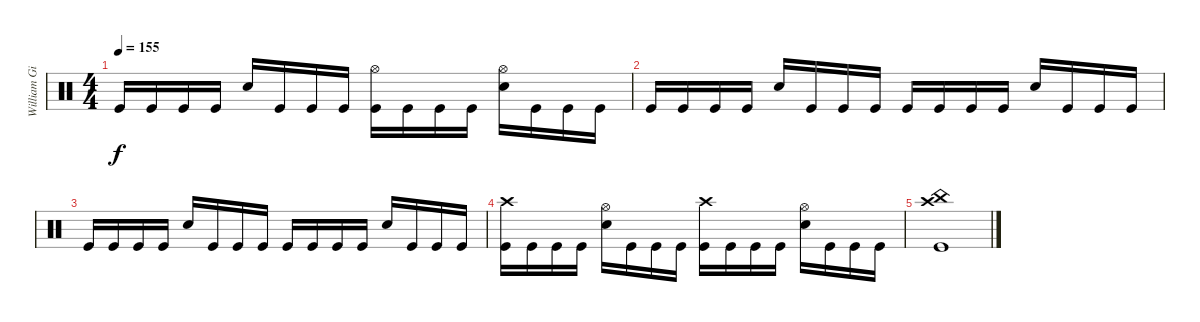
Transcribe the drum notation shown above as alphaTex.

\track ("William Gibson DRUMS" "William Gi") {instrument percussion}
\staff {score}
\articulation defaults
\ts (4 4)
\tempo 155
\clef neutral
\ks c "Kick (hit)".16{dy f} "Kick (hit)".16 "Kick (hit)".16 "Kick (hit)".16 "Electric Snare (hit)".16 "Kick (hit)".16 "Kick (hit)".16 "Kick (hit)".16
("Hi-Hat (open)" "Kick (hit)").16 "Kick (hit)".16 "Kick (hit)".16 "Kick (hit)".16 ("Hi-Hat (open)" "Electric Snare (hit)").16 "Kick (hit)".16 "Kick (hit)".16 "Kick (hit)".16 |
"Kick (hit)".16 "Kick (hit)".16 "Kick (hit)".16 "Kick (hit)".16 "Electric Snare (hit)".16 "Kick (hit)".16 "Kick (hit)".16 "Kick (hit)".16 "Kick (hit)".16 "Kick (hit)".16 "Kick (hit)".16 "Kick (hit)".16 "Electric Snare (hit)".16 "Kick (hit)".16 "Kick (hit)".16 "Kick (hit)".16 |
"Kick (hit)".16 "Kick (hit)".16 "Kick (hit)".16 "Kick (hit)".16 "Electric Snare (hit)".16 "Kick (hit)".16 "Kick (hit)".16 "Kick (hit)".16 "Kick (hit)".16 "Kick (hit)".16 "Kick (hit)".16 "Kick (hit)".16 "Electric Snare (hit)".16 "Kick (hit)".16 "Kick (hit)".16 "Kick (hit)".16 |
("Crash high (hit)" "Kick (hit)").16 "Kick (hit)".16 "Kick (hit)".16 "Kick (hit)".16 ("Hi-Hat (open)" "Electric Snare (hit)").16 "Kick (hit)".16 "Kick (hit)".16 "Kick (hit)".16 ("Crash high (hit)" "Kick (hit)").16 "Kick (hit)".16 "Kick (hit)".16 "Kick (hit)".16 ("Hi-Hat (open)" "Electric Snare (hit)").16 "Kick (hit)".16 "Kick (hit)".16 "Kick (hit)".16 |
("Crash high (hit)" "China (hit)" "Kick (hit)").1
